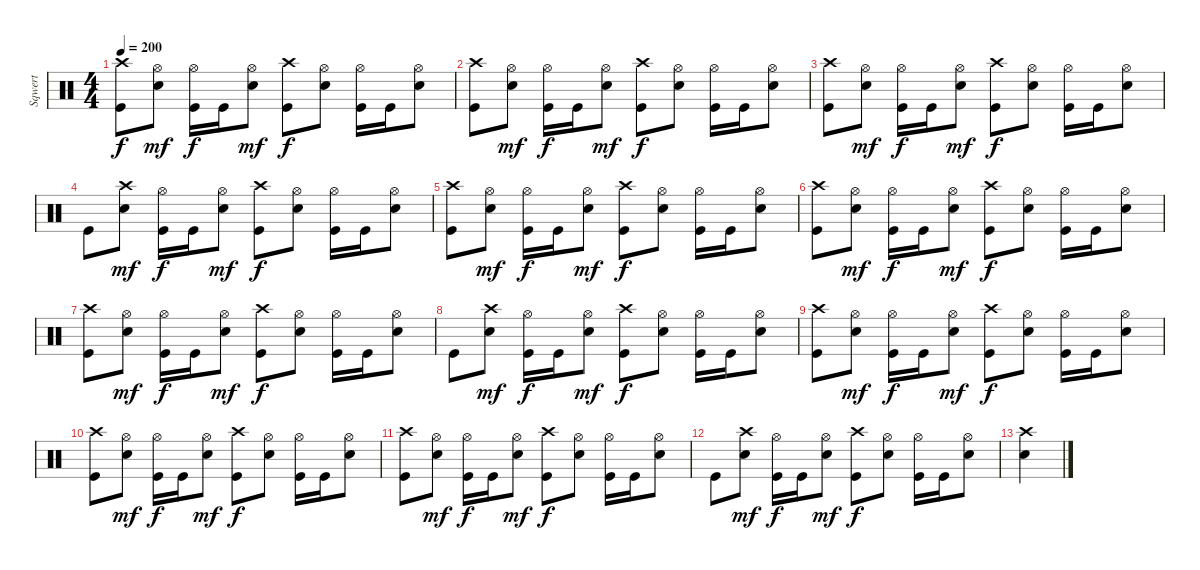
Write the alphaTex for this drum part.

\track ("Sqwert" "Sqwert") {instrument percussion}
\staff {score}
\articulation defaults
\ts (4 4)
\tempo 200
\clef neutral
\ks c
("Crash high (hit)" "Kick (hit)").8{dy f} ("Hi-Hat (open)" "Snare (hit) 2").8{dy mf} ("Hi-Hat (open)" "Kick (hit)").16{dy f} "Kick (hit)".16 ("Hi-Hat (open)" "Snare (hit) 2").8{dy mf} ("Crash high (hit)" "Kick (hit)").8{dy f} ("Hi-Hat (open)" "Snare (hit) 2").8 ("Hi-Hat (open)" "Kick (hit)").16 "Kick (hit)".16 ("Hi-Hat (open)" "Snare (hit) 2").8 |
("Crash high (hit)" "Kick (hit)").8 ("Hi-Hat (open)" "Snare (hit) 2").8{dy mf} ("Hi-Hat (open)" "Kick (hit)").16{dy f} "Kick (hit)".16 ("Hi-Hat (open)" "Snare (hit) 2").8{dy mf} ("Crash high (hit)" "Kick (hit)").8{dy f} ("Hi-Hat (open)" "Snare (hit) 2").8 ("Hi-Hat (open)" "Kick (hit)").16 "Kick (hit)".16 ("Hi-Hat (open)" "Snare (hit) 2").8 |
("Crash high (hit)" "Kick (hit)").8 ("Hi-Hat (open)" "Snare (hit) 2").8{dy mf} ("Hi-Hat (open)" "Kick (hit)").16{dy f} "Kick (hit)".16 ("Hi-Hat (open)" "Snare (hit) 2").8{dy mf} ("Crash high (hit)" "Kick (hit)").8{dy f} ("Hi-Hat (open)" "Snare (hit) 2").8 ("Hi-Hat (open)" "Kick (hit)").16 "Kick (hit)".16 ("Hi-Hat (open)" "Snare (hit) 2").8 |
"Kick (hit)".8 ("Crash high (hit)" "Snare (hit) 2").8{dy mf} ("Hi-Hat (open)" "Kick (hit)").16{dy f} "Kick (hit)".16 ("Hi-Hat (open)" "Snare (hit) 2").8{dy mf} ("Crash high (hit)" "Kick (hit)").8{dy f} ("Hi-Hat (open)" "Snare (hit) 2").8 ("Hi-Hat (open)" "Kick (hit)").16 "Kick (hit)".16 ("Hi-Hat (open)" "Snare (hit) 2").8 |
("Crash high (hit)" "Kick (hit)").8 ("Hi-Hat (open)" "Snare (hit) 2").8{dy mf} ("Hi-Hat (open)" "Kick (hit)").16{dy f} "Kick (hit)".16 ("Hi-Hat (open)" "Snare (hit) 2").8{dy mf} ("Crash high (hit)" "Kick (hit)").8{dy f} ("Hi-Hat (open)" "Snare (hit) 2").8 ("Hi-Hat (open)" "Kick (hit)").16 "Kick (hit)".16 ("Hi-Hat (open)" "Snare (hit) 2").8 |
("Crash high (hit)" "Kick (hit)").8 ("Hi-Hat (open)" "Snare (hit) 2").8{dy mf} ("Hi-Hat (open)" "Kick (hit)").16{dy f} "Kick (hit)".16 ("Hi-Hat (open)" "Snare (hit) 2").8{dy mf} ("Crash high (hit)" "Kick (hit)").8{dy f} ("Hi-Hat (open)" "Snare (hit) 2").8 ("Hi-Hat (open)" "Kick (hit)").16 "Kick (hit)".16 ("Hi-Hat (open)" "Snare (hit) 2").8 |
("Crash high (hit)" "Kick (hit)").8 ("Hi-Hat (open)" "Snare (hit) 2").8{dy mf} ("Hi-Hat (open)" "Kick (hit)").16{dy f} "Kick (hit)".16 ("Hi-Hat (open)" "Snare (hit) 2").8{dy mf} ("Crash high (hit)" "Kick (hit)").8{dy f} ("Hi-Hat (open)" "Snare (hit) 2").8 ("Hi-Hat (open)" "Kick (hit)").16 "Kick (hit)".16 ("Hi-Hat (open)" "Snare (hit) 2").8 |
"Kick (hit)".8 ("Crash high (hit)" "Snare (hit) 2").8{dy mf} ("Hi-Hat (open)" "Kick (hit)").16{dy f} "Kick (hit)".16 ("Hi-Hat (open)" "Snare (hit) 2").8{dy mf} ("Crash high (hit)" "Kick (hit)").8{dy f} ("Hi-Hat (open)" "Snare (hit) 2").8 ("Hi-Hat (open)" "Kick (hit)").16 "Kick (hit)".16 ("Hi-Hat (open)" "Snare (hit) 2").8 |
("Crash high (hit)" "Kick (hit)").8 ("Hi-Hat (open)" "Snare (hit) 2").8{dy mf} ("Hi-Hat (open)" "Kick (hit)").16{dy f} "Kick (hit)".16 ("Hi-Hat (open)" "Snare (hit) 2").8{dy mf} ("Crash high (hit)" "Kick (hit)").8{dy f} ("Hi-Hat (open)" "Snare (hit) 2").8 ("Hi-Hat (open)" "Kick (hit)").16 "Kick (hit)".16 ("Hi-Hat (open)" "Snare (hit) 2").8 |
("Crash high (hit)" "Kick (hit)").8 ("Hi-Hat (open)" "Snare (hit) 2").8{dy mf} ("Hi-Hat (open)" "Kick (hit)").16{dy f} "Kick (hit)".16 ("Hi-Hat (open)" "Snare (hit) 2").8{dy mf} ("Crash high (hit)" "Kick (hit)").8{dy f} ("Hi-Hat (open)" "Snare (hit) 2").8 ("Hi-Hat (open)" "Kick (hit)").16 "Kick (hit)".16 ("Hi-Hat (open)" "Snare (hit) 2").8 |
("Crash high (hit)" "Kick (hit)").8 ("Hi-Hat (open)" "Snare (hit) 2").8{dy mf} ("Hi-Hat (open)" "Kick (hit)").16{dy f} "Kick (hit)".16 ("Hi-Hat (open)" "Snare (hit) 2").8{dy mf} ("Crash high (hit)" "Kick (hit)").8{dy f} ("Hi-Hat (open)" "Snare (hit) 2").8 ("Hi-Hat (open)" "Kick (hit)").16 "Kick (hit)".16 ("Hi-Hat (open)" "Snare (hit) 2").8 |
"Kick (hit)".8 ("Crash high (hit)" "Snare (hit) 2").8{dy mf} ("Hi-Hat (open)" "Kick (hit)").16{dy f} "Kick (hit)".16 ("Hi-Hat (open)" "Snare (hit) 2").8{dy mf} ("Crash high (hit)" "Kick (hit)").8{dy f} ("Hi-Hat (open)" "Snare (hit) 2").8 ("Hi-Hat (open)" "Kick (hit)").16 "Kick (hit)".16 ("Hi-Hat (open)" "Snare (hit) 2").8 |
("Crash high (hit)" "Snare (hit) 2").4
